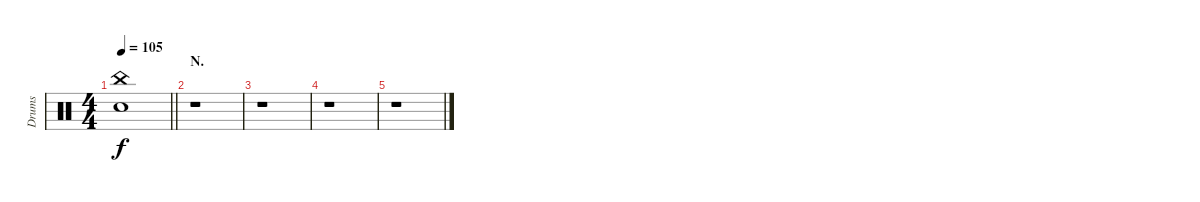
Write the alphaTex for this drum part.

\track ("Drums" "Drums") {instrument percussion}
\staff {score}
\articulation defaults
\ts (4 4)
\tempo 105
\clef neutral
\barLineRight lightlight
\ks c
("China (hit)" "Electric Snare (hit)").1{dy f} |
\section ("" "N.")
r.1 |
r.1 |
r.1 |
r.1
